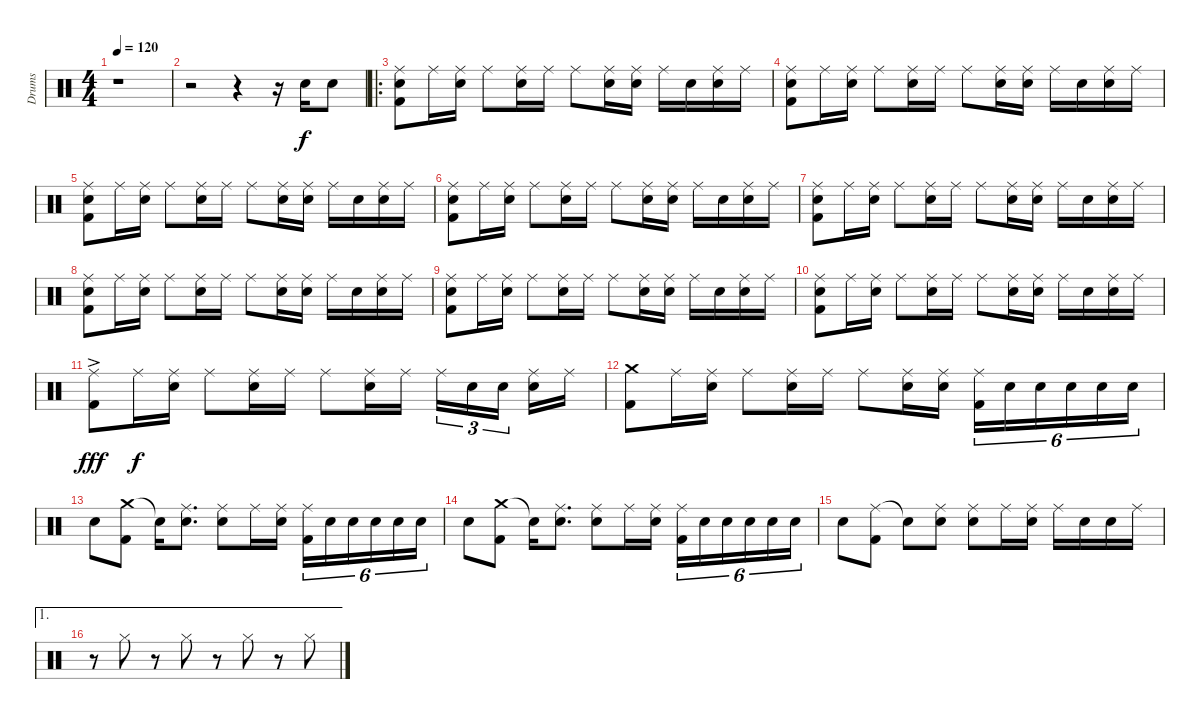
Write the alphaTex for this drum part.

\track ("Drums" "Drums") {instrument percussion}
\staff {score}
\articulation defaults
\ts (4 4)
\tempo 120
\clef neutral
\ks c
r.1{dy f} |
r.2 r.4 r.16 "Snare (hit) 2".16 "Snare (hit) 2".8 |
\ro
("Ride (middle)" "Snare (hit) 2" "Kick (hit) 2").8 "Ride (middle)".16 ("Ride (middle)" "Snare (hit) 2").16 "Ride (middle)".8 ("Ride (middle)" "Snare (hit) 2").16 "Ride (middle)".16 "Ride (middle)".8 ("Ride (middle)" "Snare (hit) 2").16 ("Ride (middle)" "Snare (hit) 2").16 "Ride (middle)".16 "Snare (hit) 2".16 ("Ride (middle)" "Snare (hit) 2").16 "Ride (middle)".16 |
("Ride (middle)" "Snare (hit) 2" "Kick (hit) 2").8 "Ride (middle)".16 ("Ride (middle)" "Snare (hit) 2").16 "Ride (middle)".8 ("Ride (middle)" "Snare (hit) 2").16 "Ride (middle)".16 "Ride (middle)".8 ("Ride (middle)" "Snare (hit) 2").16 ("Ride (middle)" "Snare (hit) 2").16 "Ride (middle)".16 "Snare (hit) 2".16 ("Ride (middle)" "Snare (hit) 2").16 "Ride (middle)".16 |
("Ride (middle)" "Snare (hit) 2" "Kick (hit) 2").8 "Ride (middle)".16 ("Ride (middle)" "Snare (hit) 2").16 "Ride (middle)".8 ("Ride (middle)" "Snare (hit) 2").16 "Ride (middle)".16 "Ride (middle)".8 ("Ride (middle)" "Snare (hit) 2").16 ("Ride (middle)" "Snare (hit) 2").16 "Ride (middle)".16 "Snare (hit) 2".16 ("Ride (middle)" "Snare (hit) 2").16 "Ride (middle)".16 |
("Ride (middle)" "Snare (hit) 2" "Kick (hit) 2").8 "Ride (middle)".16 ("Ride (middle)" "Snare (hit) 2").16 "Ride (middle)".8 ("Ride (middle)" "Snare (hit) 2").16 "Ride (middle)".16 "Ride (middle)".8 ("Ride (middle)" "Snare (hit) 2").16 ("Ride (middle)" "Snare (hit) 2").16 "Ride (middle)".16 "Snare (hit) 2".16 ("Ride (middle)" "Snare (hit) 2").16 "Ride (middle)".16 |
("Ride (middle)" "Snare (hit) 2" "Kick (hit) 2").8 "Ride (middle)".16 ("Ride (middle)" "Snare (hit) 2").16 "Ride (middle)".8 ("Ride (middle)" "Snare (hit) 2").16 "Ride (middle)".16 "Ride (middle)".8 ("Ride (middle)" "Snare (hit) 2").16 ("Ride (middle)" "Snare (hit) 2").16 "Ride (middle)".16 "Snare (hit) 2".16 ("Ride (middle)" "Snare (hit) 2").16 "Ride (middle)".16 |
("Ride (middle)" "Snare (hit) 2" "Kick (hit) 2").8 "Ride (middle)".16 ("Ride (middle)" "Snare (hit) 2").16 "Ride (middle)".8 ("Ride (middle)" "Snare (hit) 2").16 "Ride (middle)".16 "Ride (middle)".8 ("Ride (middle)" "Snare (hit) 2").16 ("Ride (middle)" "Snare (hit) 2").16 "Ride (middle)".16 "Snare (hit) 2".16 ("Ride (middle)" "Snare (hit) 2").16 "Ride (middle)".16 |
("Ride (middle)" "Snare (hit) 2" "Kick (hit) 2").8 "Ride (middle)".16 ("Ride (middle)" "Snare (hit) 2").16 "Ride (middle)".8 ("Ride (middle)" "Snare (hit) 2").16 "Ride (middle)".16 "Ride (middle)".8 ("Ride (middle)" "Snare (hit) 2").16 ("Ride (middle)" "Snare (hit) 2").16 "Ride (middle)".16 "Snare (hit) 2".16 ("Ride (middle)" "Snare (hit) 2").16 "Ride (middle)".16 |
("Ride (middle)" "Snare (hit) 2" "Kick (hit) 2").8 "Ride (middle)".16 ("Ride (middle)" "Snare (hit) 2").16 "Ride (middle)".8 ("Ride (middle)" "Snare (hit) 2").16 "Ride (middle)".16 "Ride (middle)".8 ("Ride (middle)" "Snare (hit) 2").16 ("Ride (middle)" "Snare (hit) 2").16 "Ride (middle)".16 "Snare (hit) 2".16 ("Ride (middle)" "Snare (hit) 2").16 "Ride (middle)".16 |
("Ride (middle)"{ac} "Kick (hit) 2").8{dy fff} "Ride (middle)".16{dy f} ("Ride (middle)" "Snare (hit) 2").16 "Ride (middle)".8 ("Ride (middle)" "Snare (hit) 2").16 "Ride (middle)".16 "Ride (middle)".8 ("Ride (middle)" "Snare (hit) 2").16 "Ride (middle)".16 "Ride (middle)".16{tu (3 2)} "Snare (hit) 2".16{tu (3 2)} "Snare (hit) 2".16{tu (3 2)} ("Ride (middle)" "Snare (hit) 2").16 "Ride (middle)".16 |
("Crash medium (hit)" "Kick (hit) 2").8 "Ride (middle)".16 ("Ride (middle)" "Snare (hit) 2").16 "Ride (middle)".8 ("Ride (middle)" "Snare (hit) 2").16 "Ride (middle)".16 "Ride (middle)".8 ("Ride (middle)" "Snare (hit) 2").16 ("Ride (middle)" "Snare (hit) 2").16 ("Ride (middle)" "Kick (hit) 2").16{tu (6 4)} "Snare (hit) 2".16{tu (6 4)} "Snare (hit) 2".16{tu (6 4)} "Snare (hit) 2".16{tu (6 4)} "Snare (hit) 2".16{tu (6 4)} "Snare (hit) 2".16{tu (6 4)} |
"Snare (hit) 2".8 ("Crash medium (hit)" "Kick (hit) 2").8 "Snare (hit)"{t}.16 ("Ride (middle)" "Snare (hit) 2").8{d} ("Ride (middle)" "Snare (hit) 2").8 "Ride (middle)".16 ("Ride (middle)" "Snare (hit) 2").16 ("Ride (middle)" "Kick (hit) 2").16{tu (6 4)} "Snare (hit) 2".16{tu (6 4)} "Snare (hit) 2".16{tu (6 4)} "Snare (hit) 2".16{tu (6 4)} "Snare (hit) 2".16{tu (6 4)} "Snare (hit) 2".16{tu (6 4)} |
"Snare (hit) 2".8 ("Crash medium (hit)" "Kick (hit) 2").8 "Snare (hit)"{t}.16 ("Ride (middle)" "Snare (hit) 2").8{d} ("Ride (middle)" "Snare (hit) 2").8 "Ride (middle)".16 ("Ride (middle)" "Snare (hit) 2").16 ("Ride (middle)" "Kick (hit) 2").16{tu (6 4)} "Snare (hit) 2".16{tu (6 4)} "Snare (hit) 2".16{tu (6 4)} "Snare (hit) 2".16{tu (6 4)} "Snare (hit) 2".16{tu (6 4)} "Snare (hit) 2".16{tu (6 4)} |
"Snare (hit) 2".8 ("Ride (middle)" "Kick (hit) 2").8 "Snare (hit)"{t}.8 ("Ride (middle)" "Snare (hit) 2").8 ("Ride (middle)" "Snare (hit) 2").8 "Ride (middle)".16 ("Ride (middle)" "Snare (hit) 2").16 "Ride (middle)".16 "Snare (hit) 2".16 "Snare (hit) 2".16 "Ride (middle)".16 |
\ae 1
r.8 "Hi-Hat (closed)".8 r.8 "Hi-Hat (closed)".8 r.8 "Hi-Hat (closed)".8 r.8 "Hi-Hat (closed)".8
